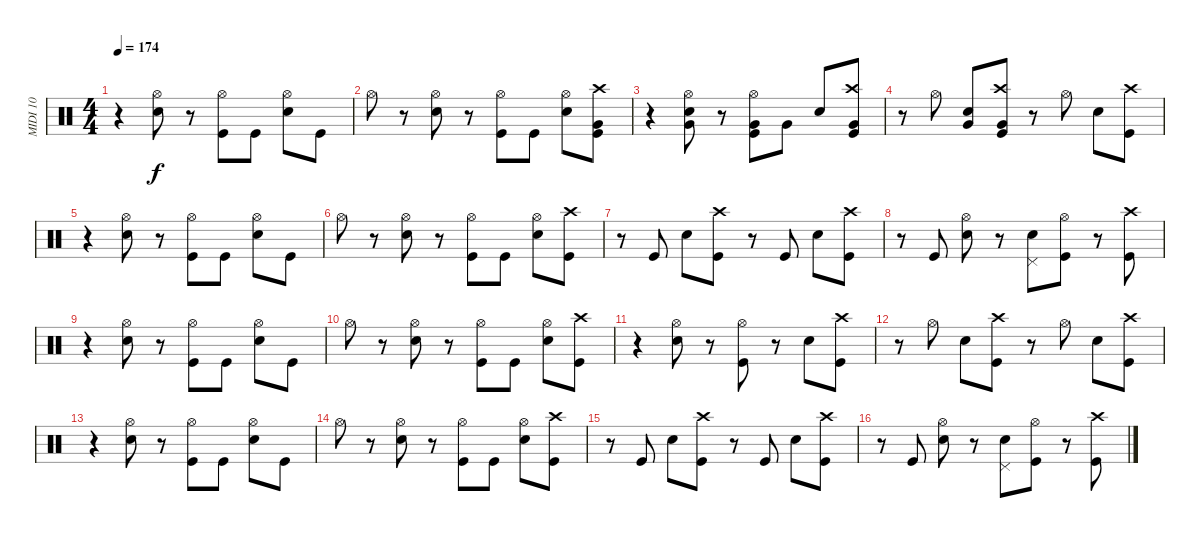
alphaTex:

\track ("MIDI 10" "MIDI 10") {instrument percussion}
\staff {score}
\articulation defaults
\ts (4 4)
\tempo 174
\clef neutral
\ks c
r.4{dy f} ("Hi-Hat (open)" "Snare (hit) 2").8 r.8 ("Hi-Hat (open)" "Kick (hit)").8 "Kick (hit)".8 ("Hi-Hat (open)" "Snare (hit) 2").8 "Kick (hit)".8 |
"Hi-Hat (open)".8 r.8 ("Hi-Hat (open)" "Snare (hit) 2").8 r.8 ("Hi-Hat (open)" "Kick (hit)").8 "Kick (hit)".8 ("Hi-Hat (open)" "Snare (hit) 2").8 ("Kick (hit)" "Crash high (hit)" "Very Low Tom (hit)").8 |
r.4 ("Hi-Hat (open)" "Snare (hit) 2" "Very Low Tom (hit)").8 r.8 ("Hi-Hat (open)" "Kick (hit)" "Very Low Tom (hit)").8 "Very Low Tom (hit)".8 "Snare (hit) 2".8 ("Crash high (hit)" "Kick (hit)" "Very Low Tom (hit)").8 |
r.8 "Hi-Hat (open)".8 ("Snare (hit) 2" "Very Low Tom (hit)").8 ("Crash high (hit)" "Kick (hit)" "Very Low Tom (hit)").8 r.8 "Hi-Hat (open)".8 "Snare (hit) 2".8 ("Kick (hit)" "Crash high (hit)").8 |
r.4 ("Hi-Hat (open)" "Snare (hit) 2").8 r.8 ("Hi-Hat (open)" "Kick (hit)").8 "Kick (hit)".8 ("Hi-Hat (open)" "Snare (hit) 2").8 "Kick (hit)".8 |
"Hi-Hat (open)".8 r.8 ("Hi-Hat (open)" "Snare (hit) 2").8 r.8 ("Hi-Hat (open)" "Kick (hit)").8 "Kick (hit)".8 ("Hi-Hat (open)" "Snare (hit) 2").8 ("Kick (hit)" "Crash high (hit)").8 |
r.8 "Kick (hit)".8 "Snare (hit) 2".8 ("Kick (hit)" "Crash high (hit)").8 r.8 "Kick (hit)".8 "Snare (hit) 2".8 ("Kick (hit)" "Crash high (hit)").8 |
r.8 "Kick (hit)".8 ("Hi-Hat (open)" "Snare (hit) 2").8 r.8 ("Pedal Hi-Hat (hit)" "Snare (hit) 2").8 ("Hi-Hat (open)" "Kick (hit)").8 r.8 ("Kick (hit)" "Crash high (hit)").8 |
r.4 ("Hi-Hat (open)" "Snare (hit) 2").8 r.8 ("Hi-Hat (open)" "Kick (hit)").8 "Kick (hit)".8 ("Hi-Hat (open)" "Snare (hit) 2").8 "Kick (hit)".8 |
"Hi-Hat (open)".8 r.8 ("Hi-Hat (open)" "Snare (hit) 2").8 r.8 ("Hi-Hat (open)" "Kick (hit)").8 "Kick (hit)".8 ("Hi-Hat (open)" "Snare (hit) 2").8 ("Kick (hit)" "Crash high (hit)").8 |
r.4 ("Hi-Hat (open)" "Snare (hit) 2").8 r.8 ("Hi-Hat (open)" "Kick (hit)").8 r.8 "Snare (hit) 2".8 ("Crash high (hit)" "Kick (hit)").8 |
r.8 "Hi-Hat (open)".8 "Snare (hit) 2".8 ("Crash high (hit)" "Kick (hit)").8 r.8 "Hi-Hat (open)".8 "Snare (hit) 2".8 ("Kick (hit)" "Crash high (hit)").8 |
r.4 ("Hi-Hat (open)" "Snare (hit) 2").8 r.8 ("Hi-Hat (open)" "Kick (hit)").8 "Kick (hit)".8 ("Hi-Hat (open)" "Snare (hit) 2").8 "Kick (hit)".8 |
"Hi-Hat (open)".8 r.8 ("Hi-Hat (open)" "Snare (hit) 2").8 r.8 ("Hi-Hat (open)" "Kick (hit)").8 "Kick (hit)".8 ("Hi-Hat (open)" "Snare (hit) 2").8 ("Kick (hit)" "Crash high (hit)").8 |
r.8 "Kick (hit)".8 "Snare (hit) 2".8 ("Kick (hit)" "Crash high (hit)").8 r.8 "Kick (hit)".8 "Snare (hit) 2".8 ("Kick (hit)" "Crash high (hit)").8 |
r.8 "Kick (hit)".8 ("Hi-Hat (open)" "Snare (hit) 2").8 r.8 ("Pedal Hi-Hat (hit)" "Snare (hit) 2").8 ("Hi-Hat (open)" "Kick (hit)").8 r.8 ("Kick (hit)" "Crash high (hit)").8
